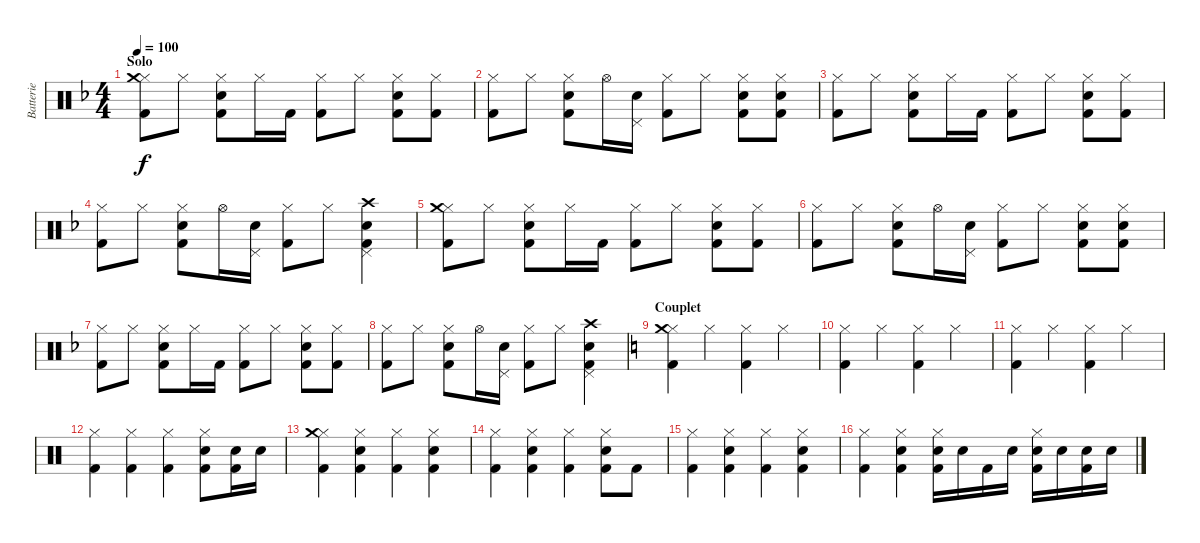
\track ("Batterie" "Batterie") {instrument percussion}
\staff {score}
\articulation defaults
\ts (4 4)
\section ("" "Solo")
\tempo 100
\clef neutral
\ks f
("Hi-Hat (closed)" "Crash medium (hit)" "Kick (hit) 2").8{dy f} "Hi-Hat (closed)".8 ("Hi-Hat (closed)" "Snare (hit) 2" "Kick (hit) 2").8 "Hi-Hat (closed)".16 "Kick (hit) 2".16 ("Hi-Hat (closed)" "Kick (hit) 2").8 "Hi-Hat (closed)".8 ("Hi-Hat (closed)" "Snare (hit) 2" "Kick (hit) 2").8 ("Hi-Hat (closed)" "Kick (hit) 2").8 |
("Hi-Hat (closed)" "Kick (hit) 2").8 "Hi-Hat (closed)".8 ("Hi-Hat (closed)" "Snare (hit) 2" "Kick (hit) 2").8 "Hi-Hat (open)".16 ("Pedal Hi-Hat (hit)" "Snare (hit) 2").16 ("Hi-Hat (closed)" "Kick (hit) 2").8 "Hi-Hat (closed)".8 ("Hi-Hat (closed)" "Snare (hit) 2" "Kick (hit) 2").8 ("Hi-Hat (closed)" "Snare (hit) 2" "Kick (hit) 2").8 |
("Hi-Hat (closed)" "Kick (hit) 2").8 "Hi-Hat (closed)".8 ("Hi-Hat (closed)" "Snare (hit) 2" "Kick (hit) 2").8 "Hi-Hat (closed)".16 "Kick (hit) 2".16 ("Hi-Hat (closed)" "Kick (hit) 2").8 "Hi-Hat (closed)".8 ("Hi-Hat (closed)" "Snare (hit) 2" "Kick (hit) 2").8 ("Hi-Hat (closed)" "Kick (hit) 2").8 |
("Hi-Hat (closed)" "Kick (hit) 2").8 "Hi-Hat (closed)".8 ("Hi-Hat (closed)" "Snare (hit) 2" "Kick (hit) 2").8 "Hi-Hat (open)".16 ("Pedal Hi-Hat (hit)" "Snare (hit) 2").16 ("Hi-Hat (closed)" "Kick (hit) 2").8 "Hi-Hat (closed)".8 ("Pedal Hi-Hat (hit)" "Crash high (hit)" "Snare (hit) 2" "Kick (hit) 2").4 |
("Hi-Hat (closed)" "Crash medium (hit)" "Kick (hit) 2").8 "Hi-Hat (closed)".8 ("Hi-Hat (closed)" "Snare (hit) 2" "Kick (hit) 2").8 "Hi-Hat (closed)".16 "Kick (hit) 2".16 ("Hi-Hat (closed)" "Kick (hit) 2").8 "Hi-Hat (closed)".8 ("Hi-Hat (closed)" "Snare (hit) 2" "Kick (hit) 2").8 ("Hi-Hat (closed)" "Kick (hit) 2").8 |
("Hi-Hat (closed)" "Kick (hit) 2").8 "Hi-Hat (closed)".8 ("Hi-Hat (closed)" "Snare (hit) 2" "Kick (hit) 2").8 "Hi-Hat (open)".16 ("Pedal Hi-Hat (hit)" "Snare (hit) 2").16 ("Hi-Hat (closed)" "Kick (hit) 2").8 "Hi-Hat (closed)".8 ("Hi-Hat (closed)" "Snare (hit) 2" "Kick (hit) 2").8 ("Hi-Hat (closed)" "Snare (hit) 2" "Kick (hit) 2").8 |
("Hi-Hat (closed)" "Kick (hit) 2").8 "Hi-Hat (closed)".8 ("Hi-Hat (closed)" "Snare (hit) 2" "Kick (hit) 2").8 "Hi-Hat (closed)".16 "Kick (hit) 2".16 ("Hi-Hat (closed)" "Kick (hit) 2").8 "Hi-Hat (closed)".8 ("Hi-Hat (closed)" "Snare (hit) 2" "Kick (hit) 2").8 ("Hi-Hat (closed)" "Kick (hit) 2").8 |
("Hi-Hat (closed)" "Kick (hit) 2").8 "Hi-Hat (closed)".8 ("Hi-Hat (closed)" "Snare (hit) 2" "Kick (hit) 2").8 "Hi-Hat (open)".16 ("Pedal Hi-Hat (hit)" "Snare (hit) 2").16 ("Hi-Hat (closed)" "Kick (hit) 2").8 "Hi-Hat (closed)".8 ("Pedal Hi-Hat (hit)" "Crash high (hit)" "Snare (hit) 2" "Kick (hit) 2").4 |
\section ("" "Couplet")
\ks c
("Hi-Hat (closed)" "Crash medium (hit)" "Kick (hit) 2").4 "Hi-Hat (closed)".4 ("Hi-Hat (closed)" "Kick (hit) 2").4 "Hi-Hat (closed)".4 |
("Hi-Hat (closed)" "Kick (hit) 2").4 "Hi-Hat (closed)".4 ("Hi-Hat (closed)" "Kick (hit) 2").4 "Hi-Hat (closed)".4 |
("Hi-Hat (closed)" "Kick (hit) 2").4 "Hi-Hat (closed)".4 ("Hi-Hat (closed)" "Kick (hit) 2").4 "Hi-Hat (closed)".4 |
("Hi-Hat (closed)" "Kick (hit) 2").4 ("Hi-Hat (closed)" "Kick (hit) 2").4 ("Hi-Hat (closed)" "Kick (hit) 2").4 ("Hi-Hat (closed)" "Snare (hit) 2" "Kick (hit) 2").8 ("Snare (hit) 2" "Kick (hit) 2").16 "Snare (hit) 2".16 |
("Hi-Hat (closed)" "Crash medium (hit)" "Kick (hit) 2").4 ("Hi-Hat (closed)" "Snare (hit) 2" "Kick (hit) 2").4 ("Hi-Hat (closed)" "Kick (hit) 2").4 ("Hi-Hat (closed)" "Snare (hit) 2" "Kick (hit) 2").4 |
("Hi-Hat (closed)" "Kick (hit) 2").4 ("Hi-Hat (closed)" "Snare (hit) 2" "Kick (hit) 2").4 ("Hi-Hat (closed)" "Kick (hit) 2").4 ("Hi-Hat (closed)" "Snare (hit) 2" "Kick (hit) 2").8 "Kick (hit) 2".8 |
("Hi-Hat (closed)" "Kick (hit) 2").4 ("Hi-Hat (closed)" "Snare (hit) 2" "Kick (hit) 2").4 ("Hi-Hat (closed)" "Kick (hit) 2").4 ("Hi-Hat (closed)" "Snare (hit) 2" "Kick (hit) 2").4 |
("Hi-Hat (closed)" "Kick (hit) 2").4 ("Hi-Hat (closed)" "Snare (hit) 2" "Kick (hit) 2").4 ("Hi-Hat (closed)" "Snare (hit) 2" "Kick (hit) 2").16 "Snare (hit) 2".16 "Kick (hit) 2".16 "Snare (hit) 2".16 ("Hi-Hat (closed)" "Snare (hit) 2" "Kick (hit) 2").16 "Snare (hit) 2".16 ("Snare (hit) 2" "Kick (hit) 2").16 "Snare (hit) 2".16
